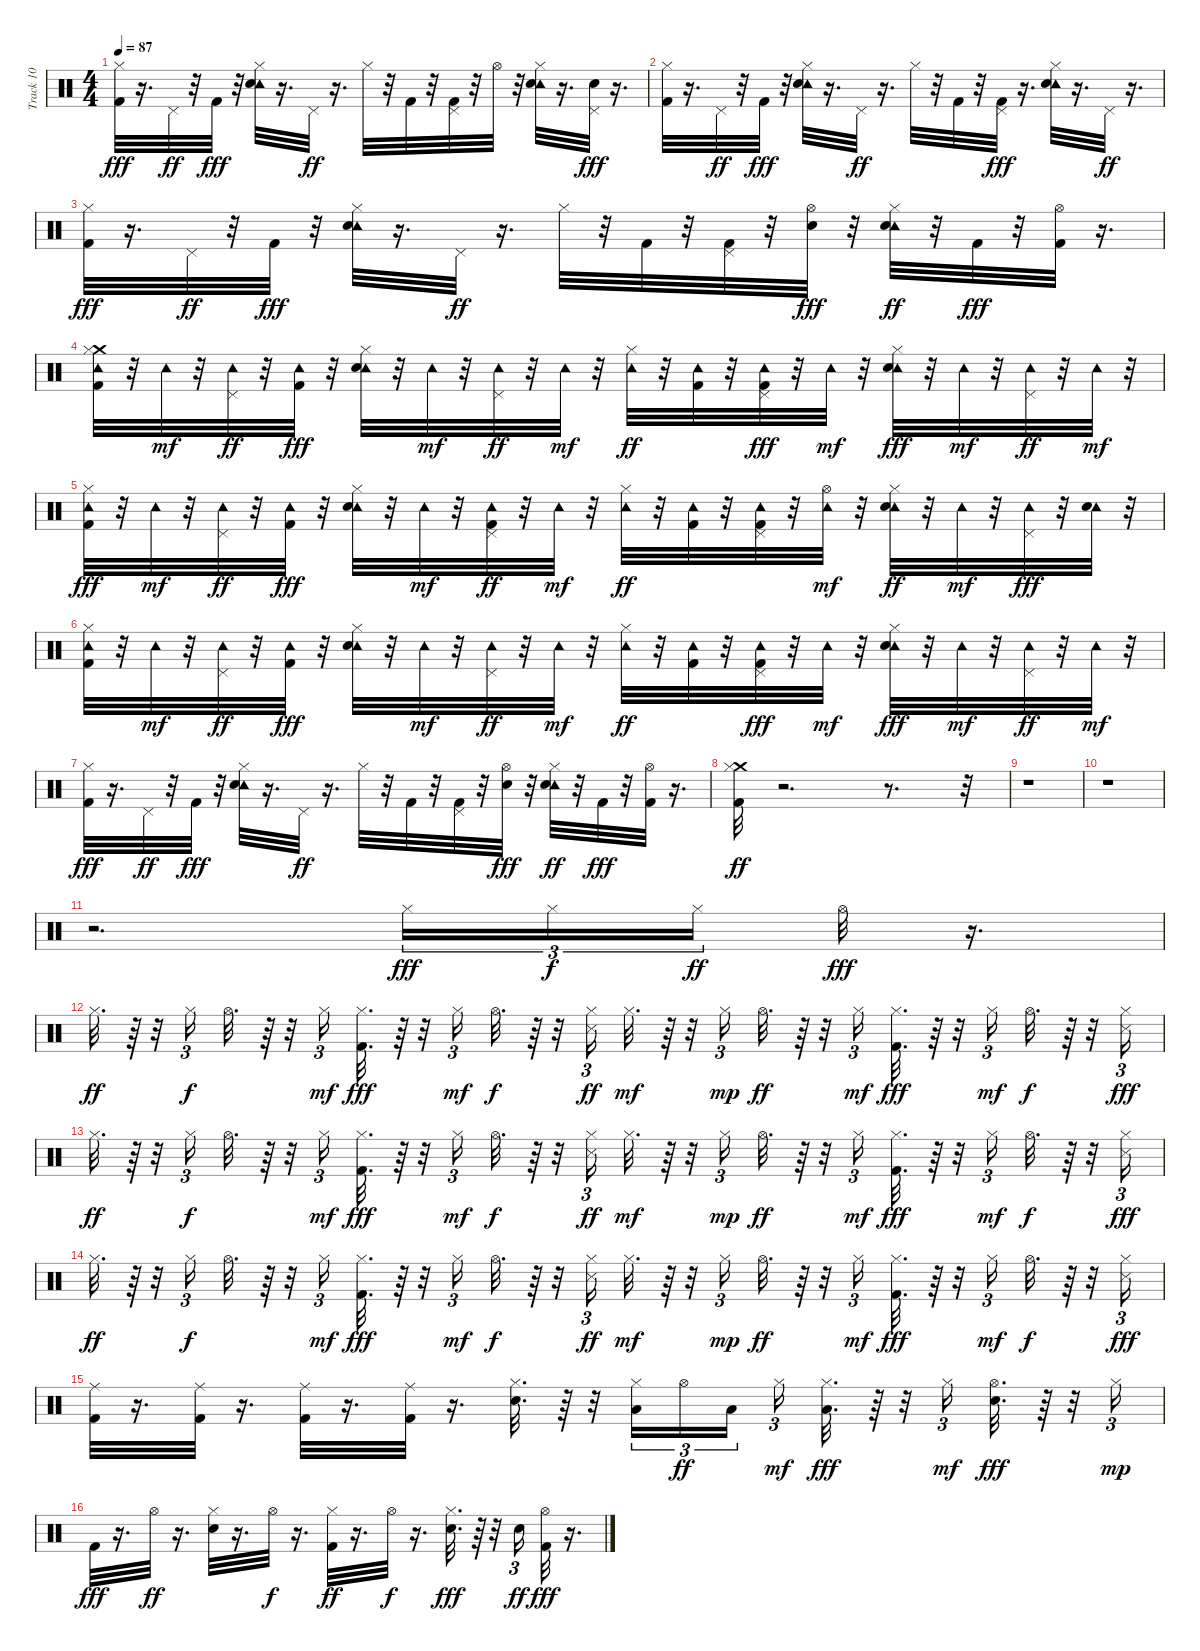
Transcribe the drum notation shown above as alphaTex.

\track ("Track 10" "Track 10") {instrument percussion}
\staff {score}
\articulation defaults
\ts (4 4)
\tempo 87
\clef neutral
\ks c
("Hi-Hat (closed)" "Kick (hit) 2").32{dy fff} r.16{d} "Pedal Hi-Hat (hit)".32{dy ff} r.32 "Kick (hit) 2".32{dy fff} r.32 ("Tambourine (hit)" "Hi-Hat (closed)" "Snare (hit) 2").32 r.16{d} "Pedal Hi-Hat (hit)".32{dy ff} r.16{d} "Hi-Hat (closed)".32 r.32 "Kick (hit) 2".32 r.32 ("Pedal Hi-Hat (hit)" "Kick (hit) 2").32 r.32 "Hi-Hat (open)".32 r.32 ("Tambourine (hit)" "Snare (hit) 2" "Hi-Hat (closed)").32 r.16{d} ("Pedal Hi-Hat (hit)" "Snare (hit) 2").32{dy fff} r.16{d} |
("Hi-Hat (closed)" "Kick (hit) 2").32 r.16{d} "Pedal Hi-Hat (hit)".32{dy ff} r.32 "Kick (hit) 2".32{dy fff} r.32 ("Tambourine (hit)" "Hi-Hat (closed)" "Snare (hit) 2").32 r.16{d} "Pedal Hi-Hat (hit)".32{dy ff} r.16{d} "Hi-Hat (closed)".32 r.32 "Kick (hit) 2".32 r.32 ("Pedal Hi-Hat (hit)" "Kick (hit) 2").32{dy fff} r.16{d} ("Tambourine (hit)" "Hi-Hat (closed)" "Snare (hit) 2").32 r.16{d} "Pedal Hi-Hat (hit)".32{dy ff} r.16{d} |
("Hi-Hat (closed)" "Kick (hit) 2").32{dy fff} r.16{d} "Pedal Hi-Hat (hit)".32{dy ff} r.32 "Kick (hit) 2".32{dy fff} r.32 ("Tambourine (hit)" "Hi-Hat (closed)" "Snare (hit) 2").32 r.16{d} "Pedal Hi-Hat (hit)".32{dy ff} r.16{d} "Hi-Hat (closed)".32 r.32 "Kick (hit) 2".32 r.32 ("Pedal Hi-Hat (hit)" "Kick (hit) 2").32 r.32 ("Hi-Hat (open)" "Snare (hit) 2").32{dy fff} r.32 ("Tambourine (hit)" "Snare (hit) 2" "Hi-Hat (closed)").32{dy ff} r.32 "Kick (hit) 2".32{dy fff} r.32 ("Kick (hit) 2" "Hi-Hat (open)").32 r.16{d} |
("Tambourine (hit)" "Crash medium (hit)" "Hi-Hat (closed)" "Kick (hit) 2").32 r.32 "Tambourine (hit)".32{dy mf} r.32 ("Tambourine (hit)" "Pedal Hi-Hat (hit)").32{dy ff} r.32 ("Tambourine (hit)" "Kick (hit) 2").32{dy fff} r.32 ("Tambourine (hit)" "Hi-Hat (closed)" "Snare (hit) 2").32 r.32 "Tambourine (hit)".32{dy mf} r.32 ("Tambourine (hit)" "Pedal Hi-Hat (hit)").32{dy ff} r.32 "Tambourine (hit)".32{dy mf} r.32 ("Tambourine (hit)" "Hi-Hat (closed)").32{dy ff} r.32 ("Tambourine (hit)" "Kick (hit) 2").32 r.32 ("Tambourine (hit)" "Pedal Hi-Hat (hit)" "Kick (hit) 2").32{dy fff} r.32 "Tambourine (hit)".32{dy mf} r.32 ("Tambourine (hit)" "Hi-Hat (closed)" "Snare (hit) 2").32{dy fff} r.32 "Tambourine (hit)".32{dy mf} r.32 ("Tambourine (hit)" "Pedal Hi-Hat (hit)").32{dy ff} r.32 "Tambourine (hit)".32{dy mf} r.32 |
("Tambourine (hit)" "Hi-Hat (closed)" "Kick (hit) 2").32{dy fff} r.32 "Tambourine (hit)".32{dy mf} r.32 ("Tambourine (hit)" "Pedal Hi-Hat (hit)").32{dy ff} r.32 ("Tambourine (hit)" "Kick (hit) 2").32{dy fff} r.32 ("Tambourine (hit)" "Hi-Hat (closed)" "Snare (hit) 2").32 r.32 "Tambourine (hit)".32{dy mf} r.32 ("Tambourine (hit)" "Pedal Hi-Hat (hit)" "Kick (hit) 2").32{dy ff} r.32 "Tambourine (hit)".32{dy mf} r.32 ("Tambourine (hit)" "Hi-Hat (closed)").32{dy ff} r.32 ("Tambourine (hit)" "Kick (hit) 2").32 r.32 ("Tambourine (hit)" "Pedal Hi-Hat (hit)" "Kick (hit) 2").32 r.32 ("Hi-Hat (open)" "Tambourine (hit)").32{dy mf} r.32 ("Tambourine (hit)" "Snare (hit) 2" "Hi-Hat (closed)").32{dy ff} r.32 "Tambourine (hit)".32{dy mf} r.32 ("Tambourine (hit)" "Pedal Hi-Hat (hit)").32{dy fff} r.32 ("Tambourine (hit)" "Snare (hit) 2").32 r.32 |
("Tambourine (hit)" "Hi-Hat (closed)" "Kick (hit) 2").32 r.32 "Tambourine (hit)".32{dy mf} r.32 ("Tambourine (hit)" "Pedal Hi-Hat (hit)").32{dy ff} r.32 ("Tambourine (hit)" "Kick (hit) 2").32{dy fff} r.32 ("Tambourine (hit)" "Hi-Hat (closed)" "Snare (hit) 2").32 r.32 "Tambourine (hit)".32{dy mf} r.32 ("Tambourine (hit)" "Pedal Hi-Hat (hit)").32{dy ff} r.32 "Tambourine (hit)".32{dy mf} r.32 ("Tambourine (hit)" "Hi-Hat (closed)").32{dy ff} r.32 ("Tambourine (hit)" "Kick (hit) 2").32 r.32 ("Tambourine (hit)" "Pedal Hi-Hat (hit)" "Kick (hit) 2").32{dy fff} r.32 "Tambourine (hit)".32{dy mf} r.32 ("Tambourine (hit)" "Hi-Hat (closed)" "Snare (hit) 2").32{dy fff} r.32 "Tambourine (hit)".32{dy mf} r.32 ("Tambourine (hit)" "Pedal Hi-Hat (hit)").32{dy ff} r.32 "Tambourine (hit)".32{dy mf} r.32 |
("Hi-Hat (closed)" "Kick (hit) 2").32{dy fff} r.16{d} "Pedal Hi-Hat (hit)".32{dy ff} r.32 "Kick (hit) 2".32{dy fff} r.32 ("Tambourine (hit)" "Hi-Hat (closed)" "Snare (hit) 2").32 r.16{d} "Pedal Hi-Hat (hit)".32{dy ff} r.16{d} "Hi-Hat (closed)".32 r.32 "Kick (hit) 2".32 r.32 ("Pedal Hi-Hat (hit)" "Kick (hit) 2").32 r.32 ("Hi-Hat (open)" "Snare (hit) 2").32{dy fff} r.32 ("Tambourine (hit)" "Snare (hit) 2" "Hi-Hat (closed)").32{dy ff} r.32 "Kick (hit) 2".32{dy fff} r.32 ("Kick (hit) 2" "Hi-Hat (open)").32 r.16{d} |
("Crash medium (hit)" "Kick (hit) 2" "Hi-Hat (closed)").32{dy ff} r.2{d} r.8{d} r.32 |
r.1 |
r.1 |
r.2{d} "Hi-Hat (closed)".16{tu (3 2) dy fff} "Hi-Hat (closed)".16{tu (3 2) dy f} "Hi-Hat (closed)".16{tu (3 2) dy ff beam splitsecondary} "Hi-Hat (open)".32{dy fff} r.16{d} |
"Hi-Hat (closed)".32{d dy ff} r.64 r.32 "Hi-Hat (closed)".16{tu (3 2) dy f} "Hi-Hat (open)".32{d} r.64 r.32 "Hi-Hat (closed)".16{tu (3 2) dy mf} ("Hi-Hat (closed)" "Kick (hit) 2").32{d dy fff} r.64 r.32 "Hi-Hat (closed)".16{tu (3 2) dy mf} "Hi-Hat (open)".32{d dy f} r.64 r.32 ("Hi-Hat (closed)" "Snare (side stick) 3").16{tu (3 2) dy ff} "Hi-Hat (closed)".32{d dy mf} r.64 r.32 "Hi-Hat (closed)".16{tu (3 2) dy mp} "Hi-Hat (open)".32{d dy ff} r.64 r.32 "Hi-Hat (closed)".16{tu (3 2) dy mf} ("Hi-Hat (closed)" "Kick (hit) 2").32{d dy fff} r.64 r.32 "Hi-Hat (closed)".16{tu (3 2) dy mf} "Hi-Hat (open)".32{d dy f} r.64 r.32 ("Hi-Hat (closed)" "Snare (side stick) 3").16{tu (3 2) dy fff} |
"Hi-Hat (closed)".32{d dy ff} r.64 r.32 "Hi-Hat (closed)".16{tu (3 2) dy f} "Hi-Hat (open)".32{d} r.64 r.32 "Hi-Hat (closed)".16{tu (3 2) dy mf} ("Hi-Hat (closed)" "Kick (hit) 2").32{d dy fff} r.64 r.32 "Hi-Hat (closed)".16{tu (3 2) dy mf} "Hi-Hat (open)".32{d dy f} r.64 r.32 ("Hi-Hat (closed)" "Snare (side stick) 3").16{tu (3 2) dy ff} "Hi-Hat (closed)".32{d dy mf} r.64 r.32 "Hi-Hat (closed)".16{tu (3 2) dy mp} "Hi-Hat (open)".32{d dy ff} r.64 r.32 "Hi-Hat (closed)".16{tu (3 2) dy mf} ("Hi-Hat (closed)" "Kick (hit) 2").32{d dy fff} r.64 r.32 "Hi-Hat (closed)".16{tu (3 2) dy mf} "Hi-Hat (open)".32{d dy f} r.64 r.32 ("Hi-Hat (closed)" "Snare (side stick) 3").16{tu (3 2) dy fff} |
"Hi-Hat (closed)".32{d dy ff} r.64 r.32 "Hi-Hat (closed)".16{tu (3 2) dy f} "Hi-Hat (open)".32{d} r.64 r.32 "Hi-Hat (closed)".16{tu (3 2) dy mf} ("Hi-Hat (closed)" "Kick (hit) 2").32{d dy fff} r.64 r.32 "Hi-Hat (closed)".16{tu (3 2) dy mf} "Hi-Hat (open)".32{d dy f} r.64 r.32 ("Hi-Hat (closed)" "Snare (side stick) 3").16{tu (3 2) dy ff} "Hi-Hat (closed)".32{d dy mf} r.64 r.32 "Hi-Hat (closed)".16{tu (3 2) dy mp} "Hi-Hat (open)".32{d dy ff} r.64 r.32 "Hi-Hat (closed)".16{tu (3 2) dy mf} ("Hi-Hat (closed)" "Kick (hit) 2").32{d dy fff} r.64 r.32 "Hi-Hat (closed)".16{tu (3 2) dy mf} "Hi-Hat (open)".32{d dy f} r.64 r.32 ("Hi-Hat (closed)" "Snare (side stick) 3").16{tu (3 2) dy fff} |
("Kick (hit) 2" "Ride (middle)").32 r.16{d} ("Kick (hit) 2" "Ride (middle)").32 r.16{d} ("Kick (hit) 2" "Ride (middle)").32 r.16{d} ("Kick (hit) 2" "Ride (middle)").32 r.16{d} ("Hi-Hat (closed)" "Snare (hit) 2").32{d} r.64 r.32 ("Hi-Hat (closed)" "Low Tom (hit)").16{tu (3 2)} "Hi-Hat (open)".16{tu (3 2) dy ff} "Low Tom (hit)".16{tu (3 2) beam splitsecondary} "Hi-Hat (closed)".16{tu (3 2) dy mf} ("Hi-Hat (closed)" "Low Floor Tom (hit)").32{d dy fff} r.64 r.32 "Hi-Hat (closed)".16{tu (3 2) dy mf} ("Hi-Hat (open)" "Snare (hit) 2").32{d dy fff} r.64 r.32 "Hi-Hat (closed)".16{tu (3 2) dy mp} |
"Kick (hit) 2".32{dy fff} r.16{d} "Hi-Hat (open)".32{dy ff} r.16{d} ("Snare (hit) 2" "Hi-Hat (closed)").32 r.16{d} "Hi-Hat (open)".32{dy f} r.16{d} ("Kick (hit) 2" "Hi-Hat (closed)").32{dy ff} r.16{d} "Hi-Hat (open)".32{dy f} r.16{d} ("Hi-Hat (closed)" "Snare (hit) 2").32{d dy fff} r.64 r.32 "Snare (hit) 2".16{tu (3 2) dy ff} ("Hi-Hat (open)" "Kick (hit) 2").32{dy fff} r.16{d}
